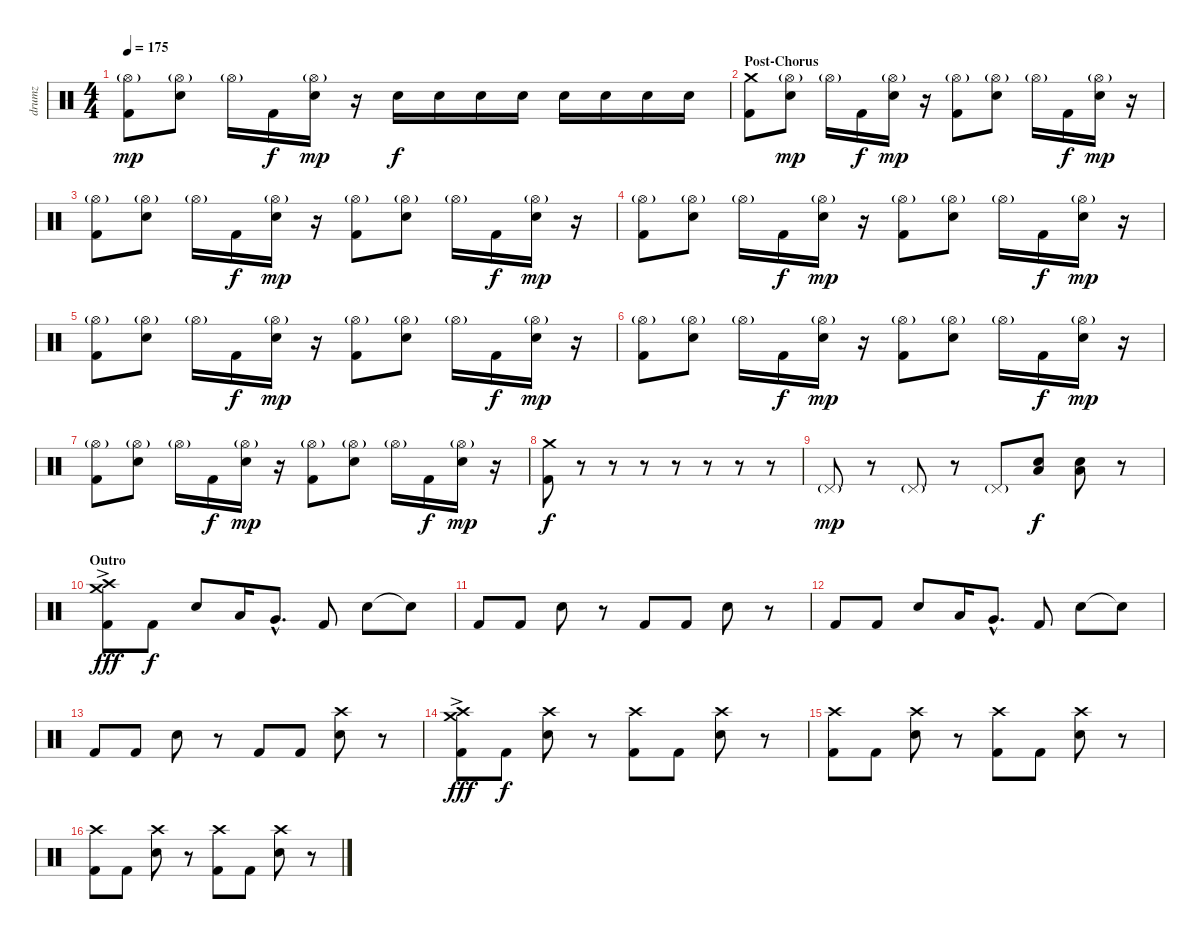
\track ("drumz" "drumz") {instrument percussion}
\staff {score}
\articulation defaults
\ts (4 4)
\tempo 175
\clef neutral
\ks c
("Hi-Hat (open)"{g} "Kick (hit) 2").8{dy mp} ("Hi-Hat (open)"{g} "Electric Snare (hit)").8 "Hi-Hat (open)"{g}.16 "Kick (hit) 2".16{dy f} ("Hi-Hat (open)"{g} "Electric Snare (hit)").16{dy mp} r.16 "Electric Snare (hit)".16{dy f} "Electric Snare (hit)".16 "Electric Snare (hit)".16 "Electric Snare (hit)".16 "Electric Snare (hit)".16 "Electric Snare (hit)".16 "Electric Snare (hit)".16 "Electric Snare (hit)".16 |
\section ("" "Post-Chorus")
("Crash medium (hit)" "Kick (hit) 2").8 ("Hi-Hat (open)"{g} "Electric Snare (hit)").8{dy mp} "Hi-Hat (open)"{g}.16 "Kick (hit) 2".16{dy f} ("Hi-Hat (open)"{g} "Electric Snare (hit)").16{dy mp} r.16 ("Hi-Hat (open)"{g} "Kick (hit) 2").8 ("Hi-Hat (open)"{g} "Electric Snare (hit)").8 "Hi-Hat (open)"{g}.16 "Kick (hit) 2".16{dy f} ("Hi-Hat (open)"{g} "Electric Snare (hit)").16{dy mp} r.16 |
("Hi-Hat (open)"{g} "Kick (hit) 2").8 ("Hi-Hat (open)"{g} "Electric Snare (hit)").8 "Hi-Hat (open)"{g}.16 "Kick (hit) 2".16{dy f} ("Hi-Hat (open)"{g} "Electric Snare (hit)").16{dy mp} r.16 ("Hi-Hat (open)"{g} "Kick (hit) 2").8 ("Hi-Hat (open)"{g} "Electric Snare (hit)").8 "Hi-Hat (open)"{g}.16 "Kick (hit) 2".16{dy f} ("Hi-Hat (open)"{g} "Electric Snare (hit)").16{dy mp} r.16 |
("Hi-Hat (open)"{g} "Kick (hit) 2").8 ("Hi-Hat (open)"{g} "Electric Snare (hit)").8 "Hi-Hat (open)"{g}.16 "Kick (hit) 2".16{dy f} ("Hi-Hat (open)"{g} "Electric Snare (hit)").16{dy mp} r.16 ("Hi-Hat (open)"{g} "Kick (hit) 2").8 ("Hi-Hat (open)"{g} "Electric Snare (hit)").8 "Hi-Hat (open)"{g}.16 "Kick (hit) 2".16{dy f} ("Hi-Hat (open)"{g} "Electric Snare (hit)").16{dy mp} r.16 |
("Hi-Hat (open)"{g} "Kick (hit) 2").8 ("Hi-Hat (open)"{g} "Electric Snare (hit)").8 "Hi-Hat (open)"{g}.16 "Kick (hit) 2".16{dy f} ("Hi-Hat (open)"{g} "Electric Snare (hit)").16{dy mp} r.16 ("Hi-Hat (open)"{g} "Kick (hit) 2").8 ("Hi-Hat (open)"{g} "Electric Snare (hit)").8 "Hi-Hat (open)"{g}.16 "Kick (hit) 2".16{dy f} ("Hi-Hat (open)"{g} "Electric Snare (hit)").16{dy mp} r.16 |
("Hi-Hat (open)"{g} "Kick (hit) 2").8 ("Hi-Hat (open)"{g} "Electric Snare (hit)").8 "Hi-Hat (open)"{g}.16 "Kick (hit) 2".16{dy f} ("Hi-Hat (open)"{g} "Electric Snare (hit)").16{dy mp} r.16 ("Hi-Hat (open)"{g} "Kick (hit) 2").8 ("Hi-Hat (open)"{g} "Electric Snare (hit)").8 "Hi-Hat (open)"{g}.16 "Kick (hit) 2".16{dy f} ("Hi-Hat (open)"{g} "Electric Snare (hit)").16{dy mp} r.16 |
("Hi-Hat (open)"{g} "Kick (hit) 2").8 ("Hi-Hat (open)"{g} "Electric Snare (hit)").8 "Hi-Hat (open)"{g}.16 "Kick (hit) 2".16{dy f} ("Hi-Hat (open)"{g} "Electric Snare (hit)").16{dy mp} r.16 ("Hi-Hat (open)"{g} "Kick (hit) 2").8 ("Hi-Hat (open)"{g} "Electric Snare (hit)").8 "Hi-Hat (open)"{g}.16 "Kick (hit) 2".16{dy f} ("Hi-Hat (open)"{g} "Electric Snare (hit)").16{dy mp} r.16 |
("Crash medium (hit)" "Kick (hit) 2").8{dy f} r.8 r.8 r.8 r.8 r.8 r.8 r.8 |
"Pedal Hi-Hat (hit)"{g}.8{dy mp} r.8 "Pedal Hi-Hat (hit)"{g}.8 r.8 "Pedal Hi-Hat (hit)"{g}.8 ("Low Floor Tom (hit)" "Electric Snare (hit)").8{dy f} ("Low Floor Tom (hit)" "Electric Snare (hit)").8 r.8 |
\section ("" "Outro")
("Crash medium (hit)" "Crash high (hit)"{ac} "Kick (hit) 2").8{dy fff} "Kick (hit) 2".8{dy f} "Electric Snare (hit)".8 "Low Tom (hit)".16 "Very Low Tom (hit)"{hac}.8{d} "Kick (hit) 2".8 "Electric Snare (hit)".8 "Snare (hit)"{t}.8 |
"Kick (hit) 2".8 "Kick (hit) 2".8 "Electric Snare (hit)".8 r.8 "Kick (hit) 2".8 "Kick (hit) 2".8 "Electric Snare (hit)".8 r.8 |
"Kick (hit) 2".8 "Kick (hit) 2".8 "Electric Snare (hit)".8 "Low Tom (hit)".16 "Very Low Tom (hit)"{hac}.8{d} "Kick (hit) 2".8 "Electric Snare (hit)".8 "Snare (hit)"{t}.8 |
"Kick (hit) 2".8 "Kick (hit) 2".8 "Electric Snare (hit)".8 r.8 "Kick (hit) 2".8 "Kick (hit) 2".8 ("Crash high (hit)" "Electric Snare (hit)").8 r.8 |
("Crash medium (hit)" "Crash high (hit)"{ac} "Kick (hit) 2").8{dy fff} "Kick (hit) 2".8{dy f} ("Crash high (hit)" "Electric Snare (hit)").8 r.8 ("Crash high (hit)" "Kick (hit) 2").8 "Kick (hit) 2".8 ("Crash high (hit)" "Electric Snare (hit)").8 r.8 |
("Crash high (hit)" "Kick (hit) 2").8 "Kick (hit) 2".8 ("Crash high (hit)" "Electric Snare (hit)").8 r.8 ("Crash high (hit)" "Kick (hit) 2").8 "Kick (hit) 2".8 ("Crash high (hit)" "Electric Snare (hit)").8 r.8 |
("Crash high (hit)" "Kick (hit) 2").8 "Kick (hit) 2".8 ("Crash high (hit)" "Electric Snare (hit)").8 r.8 ("Crash high (hit)" "Kick (hit) 2").8 "Kick (hit) 2".8 ("Crash high (hit)" "Electric Snare (hit)").8 r.8
